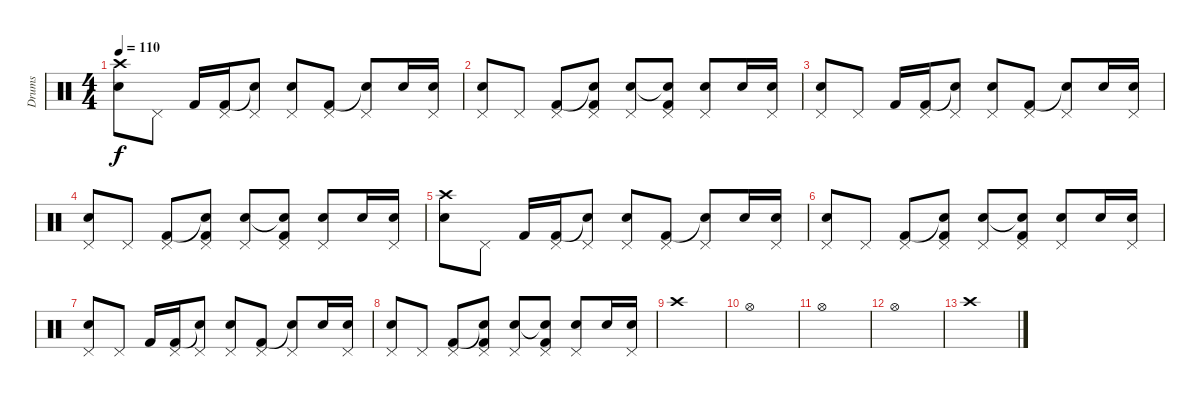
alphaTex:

\track ("Drums" "Drums") {instrument percussion}
\staff {score}
\articulation defaults
\ts (4 4)
\tempo 110
\clef neutral
\ks c
("Snare (hit) 2" "Crash high (hit)").8{dy f} "Pedal Hi-Hat (hit)".8 "Kick (hit) 2".16 ("Pedal Hi-Hat (hit)" "Kick (hit) 2").16 ("Pedal Hi-Hat (hit)" "Snare (hit)"{t}).8 ("Pedal Hi-Hat (hit)" "Snare (hit) 2").8 ("Pedal Hi-Hat (hit)" "Kick (hit) 2").8 ("Pedal Hi-Hat (hit)" "Snare (hit)"{t}).8 "Snare (hit) 2".16 ("Pedal Hi-Hat (hit)" "Snare (hit) 2").16 |
("Pedal Hi-Hat (hit)" "Snare (hit) 2").8 "Pedal Hi-Hat (hit)".8 ("Pedal Hi-Hat (hit)" "Kick (hit) 2").8 ("Pedal Hi-Hat (hit)" "Snare (hit)"{t} "Kick (hit) 2").8 ("Pedal Hi-Hat (hit)" "Snare (hit) 2").8 ("Pedal Hi-Hat (hit)" "Snare (hit)"{t} "Kick (hit) 2").8 ("Pedal Hi-Hat (hit)" "Snare (hit) 2").8 "Snare (hit) 2".16 ("Pedal Hi-Hat (hit)" "Snare (hit) 2").16 |
("Pedal Hi-Hat (hit)" "Snare (hit) 2").8 "Pedal Hi-Hat (hit)".8 "Kick (hit) 2".16 ("Pedal Hi-Hat (hit)" "Kick (hit) 2").16 ("Pedal Hi-Hat (hit)" "Snare (hit)"{t}).8 ("Pedal Hi-Hat (hit)" "Snare (hit) 2").8 ("Pedal Hi-Hat (hit)" "Kick (hit) 2").8 ("Pedal Hi-Hat (hit)" "Snare (hit)"{t}).8 "Snare (hit) 2".16 ("Pedal Hi-Hat (hit)" "Snare (hit) 2").16 |
("Pedal Hi-Hat (hit)" "Snare (hit) 2").8 "Pedal Hi-Hat (hit)".8 ("Pedal Hi-Hat (hit)" "Kick (hit) 2").8 ("Pedal Hi-Hat (hit)" "Snare (hit)"{t} "Kick (hit) 2").8 ("Pedal Hi-Hat (hit)" "Snare (hit) 2").8 ("Pedal Hi-Hat (hit)" "Snare (hit)"{t} "Kick (hit) 2").8 ("Pedal Hi-Hat (hit)" "Snare (hit) 2").8 "Snare (hit) 2".16 ("Pedal Hi-Hat (hit)" "Snare (hit) 2").16 |
("Snare (hit) 2" "Crash high (hit)").8 "Pedal Hi-Hat (hit)".8 "Kick (hit) 2".16 ("Pedal Hi-Hat (hit)" "Kick (hit) 2").16 ("Pedal Hi-Hat (hit)" "Snare (hit)"{t}).8 ("Pedal Hi-Hat (hit)" "Snare (hit) 2").8 ("Pedal Hi-Hat (hit)" "Kick (hit) 2").8 ("Pedal Hi-Hat (hit)" "Snare (hit)"{t}).8 "Snare (hit) 2".16 ("Pedal Hi-Hat (hit)" "Snare (hit) 2").16 |
("Pedal Hi-Hat (hit)" "Snare (hit) 2").8 "Pedal Hi-Hat (hit)".8 ("Pedal Hi-Hat (hit)" "Kick (hit) 2").8 ("Pedal Hi-Hat (hit)" "Snare (hit)"{t} "Kick (hit) 2").8 ("Pedal Hi-Hat (hit)" "Snare (hit) 2").8 ("Pedal Hi-Hat (hit)" "Snare (hit)"{t} "Kick (hit) 2").8 ("Pedal Hi-Hat (hit)" "Snare (hit) 2").8 "Snare (hit) 2".16 ("Pedal Hi-Hat (hit)" "Snare (hit) 2").16 |
("Pedal Hi-Hat (hit)" "Snare (hit) 2").8 "Pedal Hi-Hat (hit)".8 "Kick (hit) 2".16 ("Pedal Hi-Hat (hit)" "Kick (hit) 2").16 ("Pedal Hi-Hat (hit)" "Snare (hit)"{t}).8 ("Pedal Hi-Hat (hit)" "Snare (hit) 2").8 ("Pedal Hi-Hat (hit)" "Kick (hit) 2").8 ("Pedal Hi-Hat (hit)" "Snare (hit)"{t}).8 "Snare (hit) 2".16 ("Pedal Hi-Hat (hit)" "Snare (hit) 2").16 |
("Pedal Hi-Hat (hit)" "Snare (hit) 2").8 "Pedal Hi-Hat (hit)".8 ("Pedal Hi-Hat (hit)" "Kick (hit) 2").8 ("Pedal Hi-Hat (hit)" "Snare (hit)"{t} "Kick (hit) 2").8 ("Pedal Hi-Hat (hit)" "Snare (hit) 2").8 ("Pedal Hi-Hat (hit)" "Snare (hit)"{t} "Kick (hit) 2").8 ("Pedal Hi-Hat (hit)" "Snare (hit) 2").8 "Snare (hit) 2".16 ("Pedal Hi-Hat (hit)" "Snare (hit) 2").16 |
"Crash high (hit)".1 |
"Hi-Hat (open)".1{volume 10} |
"Hi-Hat (open)".1 |
"Hi-Hat (open)".1 |
"Crash high (hit)".1{volume 16}
